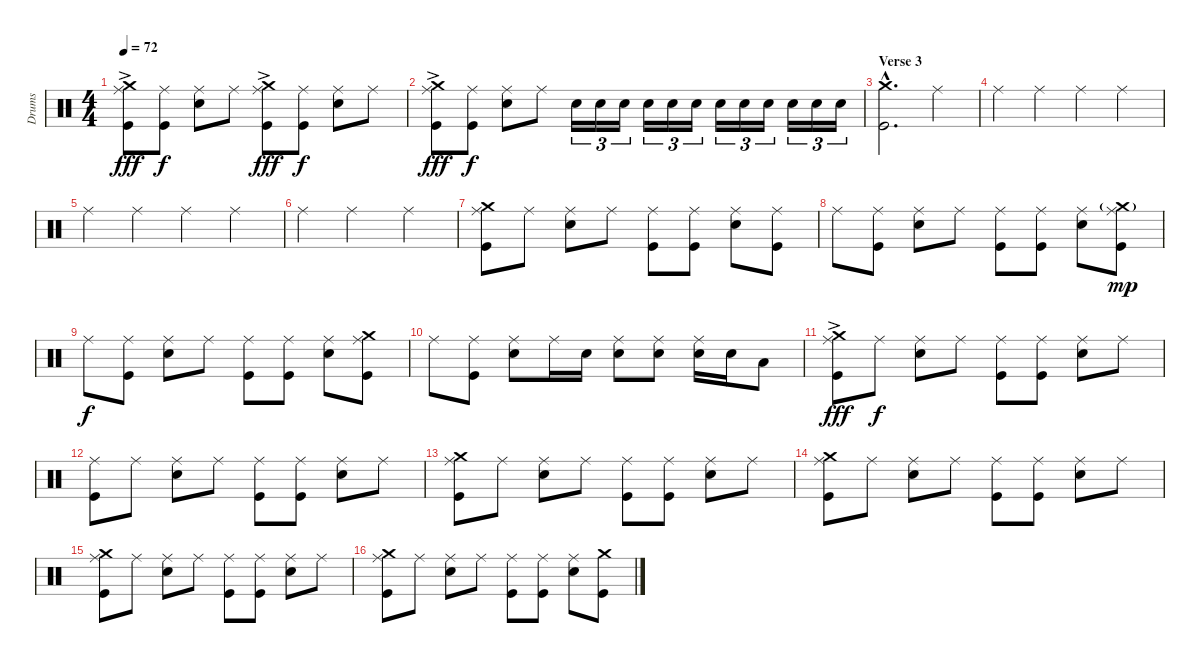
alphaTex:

\track ("Drums" "Drums") {instrument percussion}
\staff {score}
\articulation defaults
\ts (4 4)
\tempo 72
\clef neutral
\ks c
("Ride (middle)" "Crash medium (hit)"{ac} "Kick (hit)").8{dy fff} ("Ride (middle)" "Kick (hit)").8{dy f} ("Ride (middle)" "Snare (hit) 2").8 "Ride (middle)".8 ("Ride (middle)" "Crash medium (hit)"{ac} "Kick (hit)").8{dy fff} ("Ride (middle)" "Kick (hit)").8{dy f} ("Ride (middle)" "Snare (hit) 2").8 "Ride (middle)".8 |
("Ride (middle)" "Crash medium (hit)"{ac} "Kick (hit)").8{dy fff} ("Ride (middle)" "Kick (hit)").8{dy f} ("Ride (middle)" "Snare (hit) 2").8 "Ride (middle)".8 "Snare (hit) 2".16{tu (3 2)} "Snare (hit) 2".16{tu (3 2)} "Snare (hit) 2".16{tu (3 2)} "Snare (hit) 2".16{tu (3 2)} "Snare (hit) 2".16{tu (3 2)} "Snare (hit) 2".16{tu (3 2)} "Snare (hit) 2".16{tu (3 2)} "Snare (hit) 2".16{tu (3 2)} "Snare (hit) 2".16{tu (3 2)} "Snare (hit) 2".16{tu (3 2)} "Snare (hit) 2".16{tu (3 2)} "Snare (hit) 2".16{tu (3 2)} |
\section ("" "Verse 3")
("Crash medium (hit)"{hac} "Kick (hit)"{hac}).2{d} "Ride (middle)".4 |
"Ride (middle)".4 "Ride (middle)".4 "Ride (middle)".4 "Ride (middle)".4 |
"Ride (middle)".4 "Ride (middle)".4 "Ride (middle)".4 "Ride (middle)".4 |
"Ride (middle)".4 "Ride (middle)".2 "Ride (middle)".4 |
("Ride (middle)" "Crash medium (hit)" "Kick (hit)").8 "Ride (middle)".8 ("Ride (middle)" "Snare (hit) 2").8 "Ride (middle)".8 ("Ride (middle)" "Kick (hit)").8 ("Ride (middle)" "Kick (hit)").8 ("Ride (middle)" "Snare (hit) 2").8 ("Ride (middle)" "Kick (hit)").8 |
"Ride (middle)".8 ("Ride (middle)" "Kick (hit)").8 ("Ride (middle)" "Snare (hit) 2").8 "Ride (middle)".8 ("Ride (middle)" "Kick (hit)").8 ("Ride (middle)" "Kick (hit)").8 ("Ride (middle)" "Snare (hit) 2").8 ("Ride (middle)" "Crash medium (hit)"{g} "Kick (hit)").8{dy mp} |
"Ride (middle)".8{dy f} ("Ride (middle)" "Kick (hit)").8 ("Ride (middle)" "Snare (hit) 2").8 "Ride (middle)".8 ("Ride (middle)" "Kick (hit)").8 ("Ride (middle)" "Kick (hit)").8 ("Ride (middle)" "Snare (hit) 2").8 ("Ride (middle)" "Crash medium (hit)" "Kick (hit)").8 |
"Ride (middle)".8 ("Ride (middle)" "Kick (hit)").8 ("Ride (middle)" "Snare (hit) 2").8 "Ride (middle)".16 "Snare (hit) 2".16 ("Ride (middle)" "Snare (hit) 2").8 ("Ride (middle)" "Snare (hit) 2").8 ("Ride (middle)" "Snare (hit) 2").16 "Snare (hit) 2".16 "Low Tom (hit)".8 |
("Ride (middle)" "Crash medium (hit)"{ac} "Kick (hit)").8{dy fff} "Ride (middle)".8{dy f} ("Ride (middle)" "Snare (hit) 2").8 "Ride (middle)".8 ("Ride (middle)" "Kick (hit)").8 ("Ride (middle)" "Kick (hit)").8 ("Ride (middle)" "Snare (hit) 2").8 "Ride (middle)".8 |
("Ride (middle)" "Kick (hit)").8 "Ride (middle)".8 ("Ride (middle)" "Snare (hit) 2").8 "Ride (middle)".8 ("Ride (middle)" "Kick (hit)").8 ("Ride (middle)" "Kick (hit)").8 ("Ride (middle)" "Snare (hit) 2").8 "Ride (middle)".8 |
("Ride (middle)" "Crash medium (hit)" "Kick (hit)").8 "Ride (middle)".8 ("Ride (middle)" "Snare (hit) 2").8 "Ride (middle)".8 ("Ride (middle)" "Kick (hit)").8 ("Ride (middle)" "Kick (hit)").8 ("Ride (middle)" "Snare (hit) 2").8 "Ride (middle)".8 |
("Ride (middle)" "Crash medium (hit)" "Kick (hit)").8 "Ride (middle)".8 ("Ride (middle)" "Snare (hit) 2").8 "Ride (middle)".8 ("Ride (middle)" "Kick (hit)").8 ("Ride (middle)" "Kick (hit)").8 ("Ride (middle)" "Snare (hit) 2").8 "Ride (middle)".8 |
("Ride (middle)" "Crash medium (hit)" "Kick (hit)").8 "Ride (middle)".8 ("Ride (middle)" "Snare (hit) 2").8 "Ride (middle)".8 ("Ride (middle)" "Kick (hit)").8 ("Ride (middle)" "Kick (hit)").8 ("Ride (middle)" "Snare (hit) 2").8 "Ride (middle)".8 |
("Ride (middle)" "Crash medium (hit)" "Kick (hit)").8 "Ride (middle)".8 ("Ride (middle)" "Snare (hit) 2").8 "Ride (middle)".8 ("Ride (middle)" "Kick (hit)").8 ("Ride (middle)" "Kick (hit)").8 ("Ride (middle)" "Snare (hit) 2").8 ("Crash medium (hit)" "Kick (hit)").8
